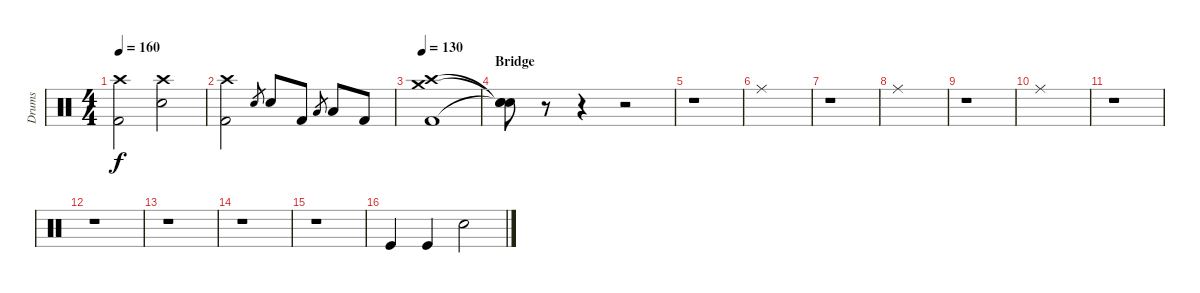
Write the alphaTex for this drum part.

\track ("Drums" "Drums") {instrument percussion}
\staff {score}
\articulation defaults
\ts (4 4)
\tempo 160
\clef neutral
\ks c
("Crash high (hit)" "Kick (hit) 2").2{dy f} ("Crash high (hit)" "Electric Snare (hit)").2 |
("Crash high (hit)" "Kick (hit) 2").2 "Electric Snare (hit)".8{gr} "Electric Snare (hit)".8 "Kick (hit) 2".8 "Low Tom (hit)".8{gr} "Low Tom (hit)".8 "Kick (hit) 2".8 |
\section ("" "")
\tempo 130
("Crash high (hit)" "Crash medium (hit)" "Kick (hit) 2").1 |
\section ("" "Bridge")
("Snare (hit)"{t} "Snare (hit)"{t} "Snare (hit)"{t}).8 r.8 r.4 r.2 |
r.1 |
"Ride (middle)".1 |
r.1 |
"Ride (middle)".1 |
r.1 |
"Ride (middle)".1 |
r.1 |
\section ("" "")
r.1 |
r.1 |
r.1 |
r.1 |
"Kick (hit)".4 "Kick (hit)".4 "Snare (hit) 2".2
